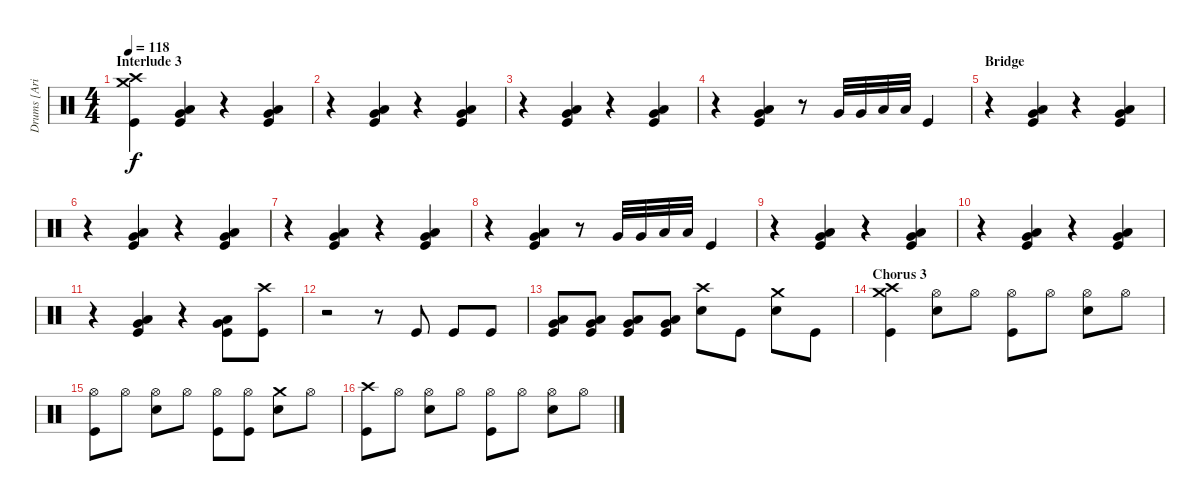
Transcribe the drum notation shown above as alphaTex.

\track ("Drums [Arin Ilejay]" "Drums [Ari") {instrument percussion}
\staff {score}
\articulation defaults
\ts (4 4)
\section ("" "Interlude 3")
\tempo 118
\clef neutral
\ks c
("Crash high (hit)" "Crash medium (hit)" "Kick (hit)").4{dy f} ("Very Low Tom (hit)" "Low Floor Tom (hit)" "Kick (hit)").4 r.4 ("Very Low Tom (hit)" "Low Floor Tom (hit)" "Kick (hit)").4 |
r.4 ("Very Low Tom (hit)" "Low Floor Tom (hit)" "Kick (hit)").4 r.4 ("Very Low Tom (hit)" "Low Floor Tom (hit)" "Kick (hit)").4 |
r.4 ("Very Low Tom (hit)" "Low Floor Tom (hit)" "Kick (hit)").4 r.4 ("Very Low Tom (hit)" "Low Floor Tom (hit)" "Kick (hit)").4 |
r.4 ("Very Low Tom (hit)" "Low Floor Tom (hit)" "Kick (hit)").4 r.8 "Very Low Tom (hit)".32 "Very Low Tom (hit)".32 "Low Floor Tom (hit)".32 "Low Floor Tom (hit)".32 "Kick (hit)".4 |
\section ("" "Bridge")
r.4 ("Very Low Tom (hit)" "Low Floor Tom (hit)" "Kick (hit)").4 r.4 ("Very Low Tom (hit)" "Low Floor Tom (hit)" "Kick (hit)").4 |
r.4 ("Very Low Tom (hit)" "Low Floor Tom (hit)" "Kick (hit)").4 r.4 ("Very Low Tom (hit)" "Low Floor Tom (hit)" "Kick (hit)").4 |
r.4 ("Very Low Tom (hit)" "Low Floor Tom (hit)" "Kick (hit)").4 r.4 ("Very Low Tom (hit)" "Low Floor Tom (hit)" "Kick (hit)").4 |
r.4 ("Very Low Tom (hit)" "Low Floor Tom (hit)" "Kick (hit)").4 r.8 "Very Low Tom (hit)".32 "Very Low Tom (hit)".32 "Low Floor Tom (hit)".32 "Low Floor Tom (hit)".32 "Kick (hit)".4 |
r.4 ("Very Low Tom (hit)" "Low Floor Tom (hit)" "Kick (hit)").4 r.4 ("Very Low Tom (hit)" "Low Floor Tom (hit)" "Kick (hit)").4 |
r.4 ("Very Low Tom (hit)" "Low Floor Tom (hit)" "Kick (hit)").4 r.4 ("Very Low Tom (hit)" "Low Floor Tom (hit)" "Kick (hit)").4 |
r.4 ("Very Low Tom (hit)" "Low Floor Tom (hit)" "Kick (hit)").4 r.4 ("Very Low Tom (hit)" "Low Floor Tom (hit)" "Kick (hit)").8 ("Crash high (hit)" "Kick (hit)").8 |
r.2 r.8 "Kick (hit)".8 "Kick (hit)".8 "Kick (hit)".8 |
("Low Tom (hit)" "Very Low Tom (hit)" "Kick (hit)").8 ("Low Tom (hit)" "Very Low Tom (hit)" "Kick (hit)").8 ("Low Tom (hit)" "Very Low Tom (hit)" "Kick (hit)").8 ("Low Tom (hit)" "Very Low Tom (hit)" "Kick (hit)").8 ("Crash high (hit)" "Snare (hit) 2").8 "Kick (hit)".8 ("Crash medium (hit)" "Snare (hit) 2").8 "Kick (hit)".8 |
\section ("" "Chorus 3")
("Crash high (hit)" "Crash medium (hit)" "Kick (hit)").4 ("Hi-Hat (open)" "Snare (hit) 2").8 "Hi-Hat (open)".8 ("Hi-Hat (open)" "Kick (hit)").8 "Hi-Hat (open)".8 ("Hi-Hat (open)" "Snare (hit) 2").8 "Hi-Hat (open)".8 |
("Hi-Hat (open)" "Kick (hit)").8 "Hi-Hat (open)".8 ("Hi-Hat (open)" "Snare (hit) 2").8 "Hi-Hat (open)".8 ("Hi-Hat (open)" "Kick (hit)").8 ("Hi-Hat (open)" "Kick (hit)").8 ("Crash medium (hit)" "Snare (hit) 2").8 "Hi-Hat (open)".8 |
("Crash high (hit)" "Kick (hit)").8 "Hi-Hat (open)".8 ("Hi-Hat (open)" "Snare (hit) 2").8 "Hi-Hat (open)".8 ("Hi-Hat (open)" "Kick (hit)").8 "Hi-Hat (open)".8 ("Hi-Hat (open)" "Snare (hit) 2").8 "Hi-Hat (open)".8
